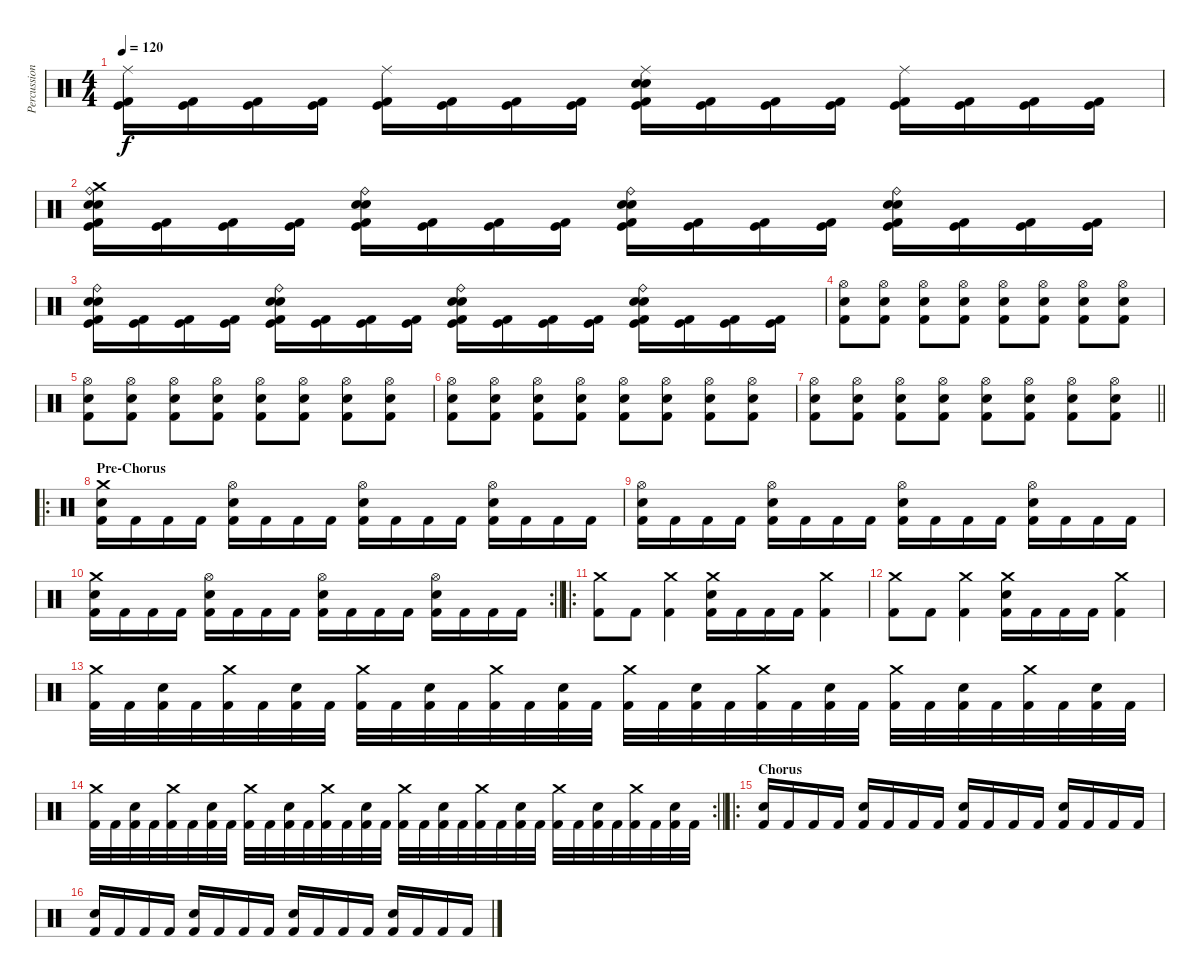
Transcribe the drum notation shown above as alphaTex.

\track ("Percussions" "Percussion") {instrument percussion}
\staff {score}
\articulation defaults
\ts (4 4)
\tempo 120
\clef neutral
\ks c
("Ride (middle)" "Kick (hit)" "Kick (hit) 2").16{dy f} ("Kick (hit)" "Kick (hit) 2").16 ("Kick (hit)" "Kick (hit) 2").16 ("Kick (hit)" "Kick (hit) 2").16 ("Ride (middle)" "Kick (hit)" "Kick (hit) 2").16 ("Kick (hit)" "Kick (hit) 2").16 ("Kick (hit)" "Kick (hit) 2").16 ("Kick (hit)" "Kick (hit) 2").16 ("Ride (middle)" "Electric Snare (hit)" "Snare (hit) 2" "Kick (hit)" "Kick (hit) 2").16 ("Kick (hit)" "Kick (hit) 2").16 ("Kick (hit)" "Kick (hit) 2").16 ("Kick (hit)" "Kick (hit) 2").16 ("Ride (middle)" "Kick (hit)" "Kick (hit) 2").16 ("Kick (hit)" "Kick (hit) 2").16 ("Kick (hit)" "Kick (hit) 2").16 ("Kick (hit)" "Kick (hit) 2").16 |
("Crash medium (hit)" "Ride (bell)" "Electric Snare (hit)" "Snare (hit) 2" "Kick (hit)" "Kick (hit) 2").16 ("Kick (hit)" "Kick (hit) 2").16 ("Kick (hit)" "Kick (hit) 2").16 ("Kick (hit)" "Kick (hit) 2").16 ("Ride (bell)" "Electric Snare (hit)" "Snare (hit) 2" "Kick (hit)" "Kick (hit) 2").16 ("Kick (hit)" "Kick (hit) 2").16 ("Kick (hit)" "Kick (hit) 2").16 ("Kick (hit)" "Kick (hit) 2").16 ("Ride (bell)" "Electric Snare (hit)" "Snare (hit) 2" "Kick (hit)" "Kick (hit) 2").16 ("Kick (hit)" "Kick (hit) 2").16 ("Kick (hit)" "Kick (hit) 2").16 ("Kick (hit)" "Kick (hit) 2").16 ("Ride (bell)" "Electric Snare (hit)" "Snare (hit) 2" "Kick (hit)" "Kick (hit) 2").16 ("Kick (hit)" "Kick (hit) 2").16 ("Kick (hit)" "Kick (hit) 2").16 ("Kick (hit)" "Kick (hit) 2").16 |
("Ride (bell)" "Electric Snare (hit)" "Snare (hit) 2" "Kick (hit)" "Kick (hit) 2").16 ("Kick (hit)" "Kick (hit) 2").16 ("Kick (hit)" "Kick (hit) 2").16 ("Kick (hit)" "Kick (hit) 2").16 ("Ride (bell)" "Electric Snare (hit)" "Snare (hit) 2" "Kick (hit)" "Kick (hit) 2").16 ("Kick (hit)" "Kick (hit) 2").16 ("Kick (hit)" "Kick (hit) 2").16 ("Kick (hit)" "Kick (hit) 2").16 ("Ride (bell)" "Electric Snare (hit)" "Snare (hit) 2" "Kick (hit)" "Kick (hit) 2").16 ("Kick (hit)" "Kick (hit) 2").16 ("Kick (hit)" "Kick (hit) 2").16 ("Kick (hit)" "Kick (hit) 2").16 ("Ride (bell)" "Electric Snare (hit)" "Snare (hit) 2" "Kick (hit)" "Kick (hit) 2").16 ("Kick (hit)" "Kick (hit) 2").16 ("Kick (hit)" "Kick (hit) 2").16 ("Kick (hit)" "Kick (hit) 2").16 |
("Hi-Hat (open)" "Electric Snare (hit)" "Kick (hit) 2").8 ("Hi-Hat (open)" "Electric Snare (hit)" "Kick (hit) 2").8 ("Hi-Hat (open)" "Electric Snare (hit)" "Kick (hit) 2").8 ("Hi-Hat (open)" "Electric Snare (hit)" "Kick (hit) 2").8 ("Hi-Hat (open)" "Electric Snare (hit)" "Kick (hit) 2").8 ("Hi-Hat (open)" "Electric Snare (hit)" "Kick (hit) 2").8 ("Hi-Hat (open)" "Electric Snare (hit)" "Kick (hit) 2").8 ("Hi-Hat (open)" "Electric Snare (hit)" "Kick (hit) 2").8 |
("Hi-Hat (open)" "Electric Snare (hit)" "Kick (hit) 2").8 ("Hi-Hat (open)" "Electric Snare (hit)" "Kick (hit) 2").8 ("Hi-Hat (open)" "Electric Snare (hit)" "Kick (hit) 2").8 ("Hi-Hat (open)" "Electric Snare (hit)" "Kick (hit) 2").8 ("Hi-Hat (open)" "Electric Snare (hit)" "Kick (hit) 2").8 ("Hi-Hat (open)" "Electric Snare (hit)" "Kick (hit) 2").8 ("Hi-Hat (open)" "Electric Snare (hit)" "Kick (hit) 2").8 ("Hi-Hat (open)" "Electric Snare (hit)" "Kick (hit) 2").8 |
("Hi-Hat (open)" "Electric Snare (hit)" "Kick (hit) 2").8 ("Hi-Hat (open)" "Electric Snare (hit)" "Kick (hit) 2").8 ("Hi-Hat (open)" "Electric Snare (hit)" "Kick (hit) 2").8 ("Hi-Hat (open)" "Electric Snare (hit)" "Kick (hit) 2").8 ("Hi-Hat (open)" "Electric Snare (hit)" "Kick (hit) 2").8 ("Hi-Hat (open)" "Electric Snare (hit)" "Kick (hit) 2").8 ("Hi-Hat (open)" "Electric Snare (hit)" "Kick (hit) 2").8 ("Hi-Hat (open)" "Electric Snare (hit)" "Kick (hit) 2").8 |
\barLineRight lightlight
("Hi-Hat (open)" "Electric Snare (hit)" "Kick (hit) 2").8 ("Hi-Hat (open)" "Electric Snare (hit)" "Kick (hit) 2").8 ("Hi-Hat (open)" "Electric Snare (hit)" "Kick (hit) 2").8 ("Hi-Hat (open)" "Electric Snare (hit)" "Kick (hit) 2").8 ("Hi-Hat (open)" "Electric Snare (hit)" "Kick (hit) 2").8 ("Hi-Hat (open)" "Electric Snare (hit)" "Kick (hit) 2").8 ("Hi-Hat (open)" "Electric Snare (hit)" "Kick (hit) 2").8 ("Hi-Hat (open)" "Electric Snare (hit)" "Kick (hit) 2").8 |
\ro
\section ("" "Pre-Chorus")
("Crash medium (hit)" "Electric Snare (hit)" "Kick (hit) 2").16 "Kick (hit) 2".16 "Kick (hit) 2".16 "Kick (hit) 2".16 ("Hi-Hat (open)" "Electric Snare (hit)" "Kick (hit) 2").16 "Kick (hit) 2".16 "Kick (hit) 2".16 "Kick (hit) 2".16 ("Hi-Hat (open)" "Electric Snare (hit)" "Kick (hit) 2").16 "Kick (hit) 2".16 "Kick (hit) 2".16 "Kick (hit) 2".16 ("Hi-Hat (open)" "Electric Snare (hit)" "Kick (hit) 2").16 "Kick (hit) 2".16 "Kick (hit) 2".16 "Kick (hit) 2".16 |
("Hi-Hat (open)" "Electric Snare (hit)" "Kick (hit) 2").16 "Kick (hit) 2".16 "Kick (hit) 2".16 "Kick (hit) 2".16 ("Hi-Hat (open)" "Electric Snare (hit)" "Kick (hit) 2").16 "Kick (hit) 2".16 "Kick (hit) 2".16 "Kick (hit) 2".16 ("Hi-Hat (open)" "Electric Snare (hit)" "Kick (hit) 2").16 "Kick (hit) 2".16 "Kick (hit) 2".16 "Kick (hit) 2".16 ("Hi-Hat (open)" "Electric Snare (hit)" "Kick (hit) 2").16 "Kick (hit) 2".16 "Kick (hit) 2".16 "Kick (hit) 2".16 |
\rc 2
\barLineRight lightlight
("Crash medium (hit)" "Electric Snare (hit)" "Kick (hit) 2").16 "Kick (hit) 2".16 "Kick (hit) 2".16 "Kick (hit) 2".16 ("Hi-Hat (open)" "Electric Snare (hit)" "Kick (hit) 2").16 "Kick (hit) 2".16 "Kick (hit) 2".16 "Kick (hit) 2".16 ("Hi-Hat (open)" "Electric Snare (hit)" "Kick (hit) 2").16 "Kick (hit) 2".16 "Kick (hit) 2".16 "Kick (hit) 2".16 ("Hi-Hat (open)" "Electric Snare (hit)" "Kick (hit) 2").16 "Kick (hit) 2".16 "Kick (hit) 2".16 "Kick (hit) 2".16 |
\ro
("Crash medium (hit)" "Kick (hit) 2").8 "Kick (hit) 2".8 ("Crash medium (hit)" "Kick (hit) 2").4 ("Crash medium (hit)" "Electric Snare (hit)" "Kick (hit) 2").16 "Kick (hit) 2".16 "Kick (hit) 2".16 "Kick (hit) 2".16 ("Crash medium (hit)" "Kick (hit) 2").4 |
("Crash medium (hit)" "Kick (hit) 2").8 "Kick (hit) 2".8 ("Crash medium (hit)" "Kick (hit) 2").4 ("Crash medium (hit)" "Electric Snare (hit)" "Kick (hit) 2").16 "Kick (hit) 2".16 "Kick (hit) 2".16 "Kick (hit) 2".16 ("Crash medium (hit)" "Kick (hit) 2").4 |
("Crash medium (hit)" "Kick (hit) 2").32 "Kick (hit) 2".32 ("Electric Snare (hit)" "Kick (hit) 2").32 "Kick (hit) 2".32 ("Crash medium (hit)" "Kick (hit) 2").32 "Kick (hit) 2".32 ("Electric Snare (hit)" "Kick (hit) 2").32 "Kick (hit) 2".32 ("Crash medium (hit)" "Kick (hit) 2").32 "Kick (hit) 2".32 ("Electric Snare (hit)" "Kick (hit) 2").32 "Kick (hit) 2".32 ("Crash medium (hit)" "Kick (hit) 2").32 "Kick (hit) 2".32 ("Electric Snare (hit)" "Kick (hit) 2").32 "Kick (hit) 2".32 ("Crash medium (hit)" "Kick (hit) 2").32 "Kick (hit) 2".32 ("Electric Snare (hit)" "Kick (hit) 2").32 "Kick (hit) 2".32 ("Crash medium (hit)" "Kick (hit) 2").32 "Kick (hit) 2".32 ("Electric Snare (hit)" "Kick (hit) 2").32 "Kick (hit) 2".32 ("Crash medium (hit)" "Kick (hit) 2").32 "Kick (hit) 2".32 ("Electric Snare (hit)" "Kick (hit) 2").32 "Kick (hit) 2".32 ("Crash medium (hit)" "Kick (hit) 2").32 "Kick (hit) 2".32 ("Electric Snare (hit)" "Kick (hit) 2").32 "Kick (hit) 2".32 |
\rc 2
\barLineRight lightlight
("Crash medium (hit)" "Kick (hit) 2").32 "Kick (hit) 2".32 ("Electric Snare (hit)" "Kick (hit) 2").32 "Kick (hit) 2".32 ("Crash medium (hit)" "Kick (hit) 2").32 "Kick (hit) 2".32 ("Electric Snare (hit)" "Kick (hit) 2").32 "Kick (hit) 2".32 ("Crash medium (hit)" "Kick (hit) 2").32 "Kick (hit) 2".32 ("Electric Snare (hit)" "Kick (hit) 2").32 "Kick (hit) 2".32 ("Crash medium (hit)" "Kick (hit) 2").32 "Kick (hit) 2".32 ("Electric Snare (hit)" "Kick (hit) 2").32 "Kick (hit) 2".32 ("Crash medium (hit)" "Kick (hit) 2").32 "Kick (hit) 2".32 ("Electric Snare (hit)" "Kick (hit) 2").32 "Kick (hit) 2".32 ("Crash medium (hit)" "Kick (hit) 2").32 "Kick (hit) 2".32 ("Electric Snare (hit)" "Kick (hit) 2").32 "Kick (hit) 2".32 ("Crash medium (hit)" "Kick (hit) 2").32 "Kick (hit) 2".32 ("Electric Snare (hit)" "Kick (hit) 2").32 "Kick (hit) 2".32 ("Crash medium (hit)" "Kick (hit) 2").32 "Kick (hit) 2".32 ("Electric Snare (hit)" "Kick (hit) 2").32 "Kick (hit) 2".32 |
\ro
\section ("" "Chorus")
("Electric Snare (hit)" "Kick (hit) 2").16 "Kick (hit) 2".16 "Kick (hit) 2".16 "Kick (hit) 2".16 ("Electric Snare (hit)" "Kick (hit) 2").16 "Kick (hit) 2".16 "Kick (hit) 2".16 "Kick (hit) 2".16 ("Electric Snare (hit)" "Kick (hit) 2").16 "Kick (hit) 2".16 "Kick (hit) 2".16 "Kick (hit) 2".16 ("Electric Snare (hit)" "Kick (hit) 2").16 "Kick (hit) 2".16 "Kick (hit) 2".16 "Kick (hit) 2".16 |
("Electric Snare (hit)" "Kick (hit) 2").16 "Kick (hit) 2".16 "Kick (hit) 2".16 "Kick (hit) 2".16 ("Electric Snare (hit)" "Kick (hit) 2").16 "Kick (hit) 2".16 "Kick (hit) 2".16 "Kick (hit) 2".16 ("Electric Snare (hit)" "Kick (hit) 2").16 "Kick (hit) 2".16 "Kick (hit) 2".16 "Kick (hit) 2".16 ("Electric Snare (hit)" "Kick (hit) 2").16 "Kick (hit) 2".16 "Kick (hit) 2".16 "Kick (hit) 2".16
